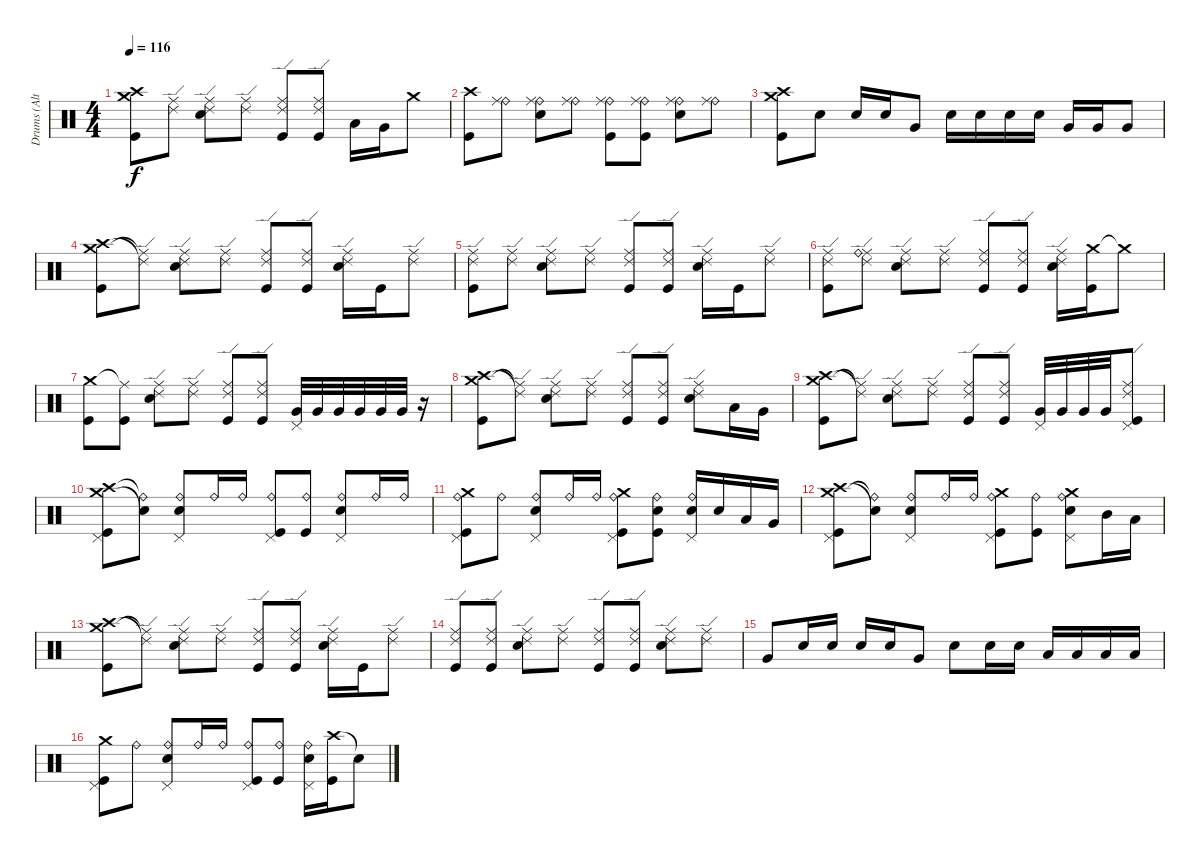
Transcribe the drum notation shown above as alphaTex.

\track ("Drums (Alternate - NOT ON MASTER)" "Drums (Alt") {mute instrument percussion}
\staff {score}
\articulation defaults
\ts (4 4)
\tempo 116
\clef neutral
\ks c
("Crash medium (hit)" "Crash high (hit)" "Kick (hit)").8{dy f} ("Ride (middle)" "Ride (edge) 2").8 ("Ride (middle)" "Ride (edge) 2" "Snare (hit) 2").8 ("Ride (middle)" "Ride (edge) 2").8 ("Ride (middle)" "Ride (edge) 2" "Kick (hit)").8 ("Ride (middle)" "Ride (edge) 2" "Kick (hit)").8 "Low Tom (hit)".16 "Very Low Tom (hit)".16 "Crash medium (hit)".8 |
("Crash high (hit)" "Kick (hit)").8 ("Ride (bell)" "Ride (middle)").8 ("Ride (bell)" "Ride (middle)" "Snare (hit) 2").8 ("Ride (bell)" "Ride (middle)").8 ("Ride (bell)" "Ride (middle)" "Kick (hit)").8 ("Ride (bell)" "Ride (middle)" "Kick (hit)").8 ("Ride (bell)" "Ride (middle)" "Snare (hit) 2").8 ("Ride (bell)" "Ride (middle)").8 |
("Crash medium (hit)" "Crash high (hit)" "Kick (hit)").8 "Snare (hit) 2".8 "Snare (hit) 2".16 "Snare (hit) 2".16 "Very Low Tom (hit)".8 "Snare (hit) 2".16 "Snare (hit) 2".16 "Snare (hit) 2".16 "Snare (hit) 2".16 "Very Low Tom (hit)".16 "Very Low Tom (hit)".16 "Very Low Tom (hit)".8 |
("Crash medium (hit)" "Crash high (hit)" "Kick (hit)").8 ("Ride (middle)"{t} "Ride (edge) 2"{t}).8 ("Ride (middle)" "Ride (edge) 2" "Snare (hit) 2").8 ("Ride (middle)" "Ride (edge) 2").8 ("Ride (middle)" "Ride (edge) 2" "Kick (hit)").8 ("Ride (middle)" "Ride (edge) 2" "Kick (hit)").8 ("Ride (middle)" "Ride (edge) 2" "Snare (hit) 2").16 "Kick (hit)".16 ("Ride (middle)" "Ride (edge) 2").8 |
("Ride (middle)" "Ride (edge) 2" "Kick (hit)").8 ("Ride (middle)" "Ride (edge) 2").8 ("Ride (middle)" "Ride (edge) 2" "Snare (hit) 2").8 ("Ride (middle)" "Ride (edge) 2").8 ("Ride (middle)" "Ride (edge) 2" "Kick (hit)").8 ("Ride (middle)" "Ride (edge) 2" "Kick (hit)").8 ("Ride (middle)" "Ride (edge) 2" "Snare (hit) 2").16 "Kick (hit)".16 ("Ride (middle)" "Ride (edge) 2").8 |
("Ride (middle)" "Ride (edge) 2" "Kick (hit)").8 ("Ride (middle)" "Ride (edge) 2" "Ride (bell)").8 ("Ride (middle)" "Ride (edge) 2" "Snare (hit) 2").8 ("Ride (middle)" "Ride (edge) 2").8 ("Ride (middle)" "Ride (edge) 2" "Kick (hit)").8 ("Ride (middle)" "Ride (edge) 2" "Kick (hit)").8 ("Ride (middle)" "Ride (edge) 2" "Snare (hit) 2").16 ("Crash medium (hit)" "Kick (hit)").16 "Crash medium (hit)"{t}.8 |
("Crash medium (hit)" "Kick (hit)").8 ("Ride (middle)"{t} "Kick (hit)").8 ("Ride (middle)" "Ride (edge) 2" "Snare (hit) 2").8 ("Ride (middle)" "Ride (edge) 2").8 ("Ride (middle)" "Ride (edge) 2" "Kick (hit)").8 ("Ride (middle)" "Ride (edge) 2" "Kick (hit)").8 ("Very Low Tom (hit)" "Pedal Hi-Hat (hit)").32 "Very Low Tom (hit)".32 "Very Low Tom (hit)".32 "Very Low Tom (hit)".32 "Very Low Tom (hit)".32 "Very Low Tom (hit)".32 r.16 |
("Crash medium (hit)" "Crash high (hit)" "Kick (hit)").8 ("Ride (middle)"{t} "Ride (edge) 2"{t}).8 ("Ride (middle)" "Ride (edge) 2" "Snare (hit) 2").8 ("Ride (middle)" "Ride (edge) 2").8 ("Ride (middle)" "Ride (edge) 2" "Kick (hit)").8 ("Ride (middle)" "Ride (edge) 2" "Kick (hit)").8 ("Ride (middle)" "Ride (edge) 2" "Snare (hit) 2").8 "Low Tom (hit)".16 "Very Low Tom (hit)".16 |
("Crash medium (hit)" "Crash high (hit)" "Kick (hit)").8 ("Ride (middle)"{t} "Ride (edge) 2"{t}).8 ("Ride (middle)" "Ride (edge) 2" "Snare (hit) 2").8 ("Ride (middle)" "Ride (edge) 2").8 ("Ride (middle)" "Ride (edge) 2" "Kick (hit)").8 ("Ride (middle)" "Ride (edge) 2" "Kick (hit)").8 ("Very Low Tom (hit)" "Pedal Hi-Hat (hit)").32 "Very Low Tom (hit)".32 "Very Low Tom (hit)".32 "Very Low Tom (hit)".32 ("Ride (edge) 2" "Ride (middle)" "Pedal Hi-Hat (hit)" "Kick (hit)").8 |
("Crash high (hit)" "Crash medium (hit)" "Pedal Hi-Hat (hit)" "Kick (hit)").8 ("Ride (bell)"{t} "Snare (hit)"{t}).8 ("Ride (bell)" "Snare (hit) 2" "Pedal Hi-Hat (hit)").8 "Ride (bell)".16 "Ride (bell)".16 ("Ride (bell)" "Pedal Hi-Hat (hit)" "Kick (hit)").8 ("Ride (bell)" "Kick (hit)").8 ("Ride (bell)" "Snare (hit) 2" "Pedal Hi-Hat (hit)").8 "Ride (bell)".16 "Ride (bell)".16 |
("Ride (bell)" "Crash medium (hit)" "Pedal Hi-Hat (hit)" "Kick (hit)").8 "Ride (bell)".8 ("Ride (bell)" "Snare (hit) 2" "Pedal Hi-Hat (hit)").8 "Ride (bell)".16 "Ride (bell)".16 ("Ride (bell)" "Crash medium (hit)" "Pedal Hi-Hat (hit)" "Kick (hit)").8 ("Ride (bell)" "Snare (hit) 2" "Kick (hit)").8 ("Ride (bell)" "Snare (hit) 2" "Pedal Hi-Hat (hit)").16 "Snare (hit) 2".16 "Low Tom (hit)".16 "Very Low Tom (hit)".16 |
("Crash medium (hit)" "Crash high (hit)" "Pedal Hi-Hat (hit)" "Kick (hit)").8 ("Ride (bell)"{t} "Snare (hit)"{t}).8 ("Ride (bell)" "Snare (hit) 2" "Pedal Hi-Hat (hit)").8 "Ride (bell)".16 "Ride (bell)".16 ("Ride (bell)" "Crash medium (hit)" "Pedal Hi-Hat (hit)" "Kick (hit)").8 ("Ride (bell)" "Kick (hit)").8 ("Ride (bell)" "Crash medium (hit)" "Snare (hit) 2" "Pedal Hi-Hat (hit)").8 "Mid Tom (hit)".16 "Low Tom (hit)".16 |
("Crash medium (hit)" "Crash high (hit)" "Kick (hit)").8 ("Ride (middle)"{t} "Ride (edge) 2"{t}).8 ("Ride (middle)" "Ride (edge) 2" "Snare (hit) 2").8 ("Ride (middle)" "Ride (edge) 2").8 ("Ride (middle)" "Ride (edge) 2" "Kick (hit)").8 ("Ride (middle)" "Ride (edge) 2" "Kick (hit)").8 ("Ride (middle)" "Ride (edge) 2" "Snare (hit) 2").16 "Kick (hit)".16 ("Ride (middle)" "Ride (edge) 2").8 |
("Ride (middle)" "Ride (edge) 2" "Kick (hit)").8 ("Ride (middle)" "Ride (edge) 2" "Kick (hit)").8 ("Ride (middle)" "Ride (edge) 2" "Snare (hit) 2").8 ("Ride (middle)" "Ride (edge) 2").8 ("Ride (middle)" "Ride (edge) 2" "Kick (hit)").8 ("Ride (middle)" "Ride (edge) 2" "Kick (hit)").8 ("Ride (middle)" "Ride (edge) 2" "Snare (hit) 2").8 ("Ride (middle)" "Ride (edge) 2").8 |
"Very Low Tom (hit)".8 "Snare (hit) 2".16 "Snare (hit) 2".16 "Snare (hit) 2".16 "Snare (hit) 2".16 "Very Low Tom (hit)".8 "Snare (hit) 2".8 "Snare (hit) 2".16 "Snare (hit) 2".16 "Low Floor Tom (hit)".16 "Low Floor Tom (hit)".16 "Low Floor Tom (hit)".16 "Low Floor Tom (hit)".16 |
("Crash medium (hit)" "Pedal Hi-Hat (hit)" "Kick (hit)").8 "Ride (bell)".8 ("Ride (bell)" "Snare (hit) 2" "Pedal Hi-Hat (hit)").8 "Ride (bell)".16 "Ride (bell)".16 ("Ride (bell)" "Pedal Hi-Hat (hit)" "Kick (hit)").8 ("Ride (bell)" "Kick (hit)").8 ("Ride (bell)" "Snare (hit) 2" "Pedal Hi-Hat (hit)").16 ("Crash high (hit)" "Kick (hit)").16 "Snare (hit)"{t}.8
